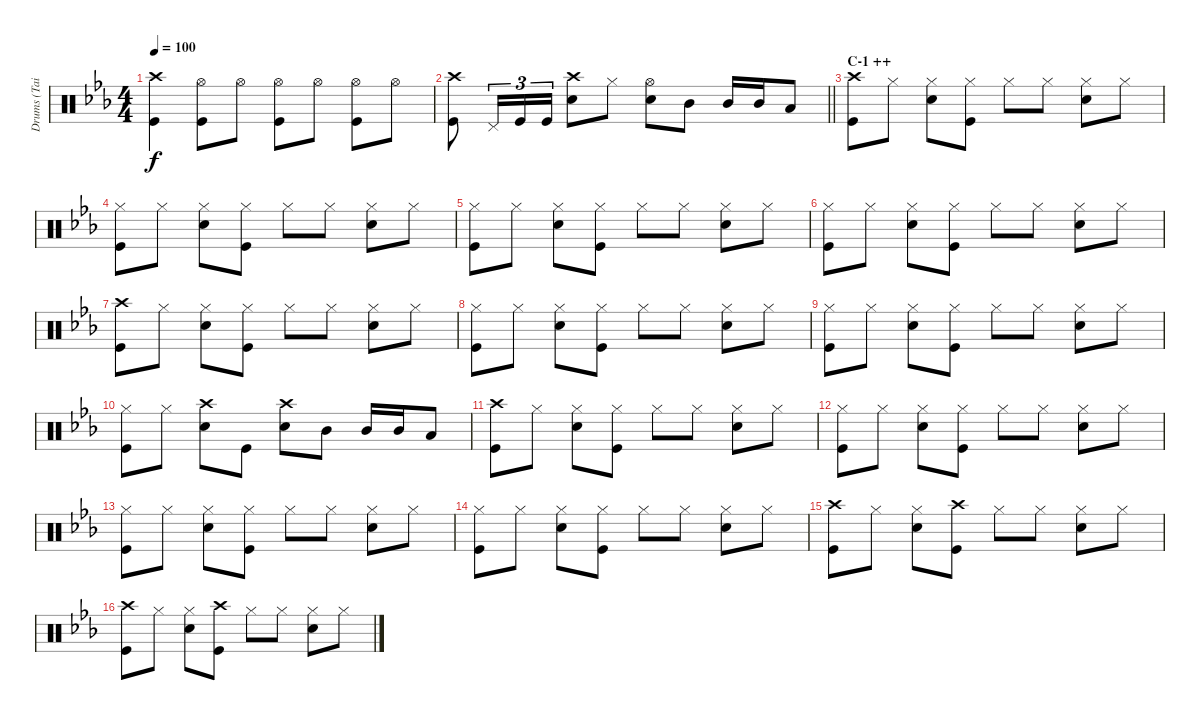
\track ("Drums (Tainaka Ritsu)" "Drums (Tai") {instrument percussion}
\staff {score}
\articulation defaults
\ts (4 4)
\tempo 100
\clef neutral
\ks eb
("Crash high (hit)" "Kick (hit)").4{dy f} ("Hi-Hat (open)" "Kick (hit)").8 "Hi-Hat (open)".8 ("Hi-Hat (open)" "Kick (hit)").8 "Hi-Hat (open)".8 ("Hi-Hat (open)" "Kick (hit)").8 "Hi-Hat (open)".8 |
\barLineRight lightlight
("Crash high (hit)" "Kick (hit)").8 "Pedal Hi-Hat (hit)".16{tu (3 2)} "Kick (hit)".16{tu (3 2)} "Kick (hit)".16{tu (3 2)} ("Crash high (hit)" "Snare (hit) 2").8 "Hi-Hat (closed)".8 ("Hi-Hat (open)" "Snare (hit) 2").8 "Mid Tom (hit)".8 "Mid Tom (hit)".16 "Mid Tom (hit)".16 "Low Tom (hit)".8 |
\section ("" "C-1 ++")
("Crash high (hit)" "Kick (hit)").8 "Hi-Hat (closed)".8 ("Hi-Hat (closed)" "Snare (hit) 2").8 ("Hi-Hat (closed)" "Kick (hit)").8 "Hi-Hat (closed)".8 "Hi-Hat (closed)".8 ("Hi-Hat (closed)" "Snare (hit) 2").8 "Hi-Hat (closed)".8 |
("Hi-Hat (closed)" "Kick (hit)").8 "Hi-Hat (closed)".8 ("Hi-Hat (closed)" "Snare (hit) 2").8 ("Hi-Hat (closed)" "Kick (hit)").8 "Hi-Hat (closed)".8 "Hi-Hat (closed)".8 ("Hi-Hat (closed)" "Snare (hit) 2").8 "Hi-Hat (closed)".8 |
("Hi-Hat (closed)" "Kick (hit)").8 "Hi-Hat (closed)".8 ("Hi-Hat (closed)" "Snare (hit) 2").8 ("Hi-Hat (closed)" "Kick (hit)").8 "Hi-Hat (closed)".8 "Hi-Hat (closed)".8 ("Hi-Hat (closed)" "Snare (hit) 2").8 "Hi-Hat (closed)".8 |
("Hi-Hat (closed)" "Kick (hit)").8 "Hi-Hat (closed)".8 ("Hi-Hat (closed)" "Snare (hit) 2").8 ("Hi-Hat (closed)" "Kick (hit)").8 "Hi-Hat (closed)".8 "Hi-Hat (closed)".8 ("Hi-Hat (closed)" "Snare (hit) 2").8 "Hi-Hat (closed)".8 |
("Crash high (hit)" "Kick (hit)").8 "Hi-Hat (closed)".8 ("Hi-Hat (closed)" "Snare (hit) 2").8 ("Hi-Hat (closed)" "Kick (hit)").8 "Hi-Hat (closed)".8 "Hi-Hat (closed)".8 ("Hi-Hat (closed)" "Snare (hit) 2").8 "Hi-Hat (closed)".8 |
("Hi-Hat (closed)" "Kick (hit)").8 "Hi-Hat (closed)".8 ("Hi-Hat (closed)" "Snare (hit) 2").8 ("Hi-Hat (closed)" "Kick (hit)").8 "Hi-Hat (closed)".8 "Hi-Hat (closed)".8 ("Hi-Hat (closed)" "Snare (hit) 2").8 "Hi-Hat (closed)".8 |
("Hi-Hat (closed)" "Kick (hit)").8 "Hi-Hat (closed)".8 ("Hi-Hat (closed)" "Snare (hit) 2").8 ("Hi-Hat (closed)" "Kick (hit)").8 "Hi-Hat (closed)".8 "Hi-Hat (closed)".8 ("Hi-Hat (closed)" "Snare (hit) 2").8 "Hi-Hat (closed)".8 |
("Hi-Hat (closed)" "Kick (hit)").8 "Hi-Hat (closed)".8 ("Crash high (hit)" "Snare (hit) 2").8 "Kick (hit)".8 ("Crash high (hit)" "Snare (hit) 2").8 "Mid Tom (hit)".8 "Mid Tom (hit)".16 "Mid Tom (hit)".16 "Low Tom (hit)".8 |
("Crash high (hit)" "Kick (hit)").8 "Hi-Hat (closed)".8 ("Hi-Hat (closed)" "Snare (hit) 2").8 ("Hi-Hat (closed)" "Kick (hit)").8 "Hi-Hat (closed)".8 "Hi-Hat (closed)".8 ("Hi-Hat (closed)" "Snare (hit) 2").8 "Hi-Hat (closed)".8 |
("Hi-Hat (closed)" "Kick (hit)").8 "Hi-Hat (closed)".8 ("Hi-Hat (closed)" "Snare (hit) 2").8 ("Hi-Hat (closed)" "Kick (hit)").8 "Hi-Hat (closed)".8 "Hi-Hat (closed)".8 ("Hi-Hat (closed)" "Snare (hit) 2").8 "Hi-Hat (closed)".8 |
("Hi-Hat (closed)" "Kick (hit)").8 "Hi-Hat (closed)".8 ("Hi-Hat (closed)" "Snare (hit) 2").8 ("Hi-Hat (closed)" "Kick (hit)").8 "Hi-Hat (closed)".8 "Hi-Hat (closed)".8 ("Hi-Hat (closed)" "Snare (hit) 2").8 "Hi-Hat (closed)".8 |
("Hi-Hat (closed)" "Kick (hit)").8 "Hi-Hat (closed)".8 ("Hi-Hat (closed)" "Snare (hit) 2").8 ("Hi-Hat (closed)" "Kick (hit)").8 "Hi-Hat (closed)".8 "Hi-Hat (closed)".8 ("Hi-Hat (closed)" "Snare (hit) 2").8 "Hi-Hat (closed)".8 |
("Crash high (hit)" "Kick (hit)").8 "Hi-Hat (closed)".8 ("Hi-Hat (closed)" "Snare (hit) 2").8 ("Crash high (hit)" "Kick (hit)").8 "Hi-Hat (closed)".8 "Hi-Hat (closed)".8 ("Hi-Hat (closed)" "Snare (hit) 2").8 "Hi-Hat (closed)".8 |
("Crash high (hit)" "Kick (hit)").8 "Hi-Hat (closed)".8 ("Hi-Hat (closed)" "Snare (hit) 2").8 ("Crash high (hit)" "Kick (hit)").8 "Hi-Hat (closed)".8 "Hi-Hat (closed)".8 ("Hi-Hat (closed)" "Snare (hit) 2").8 "Hi-Hat (closed)".8
